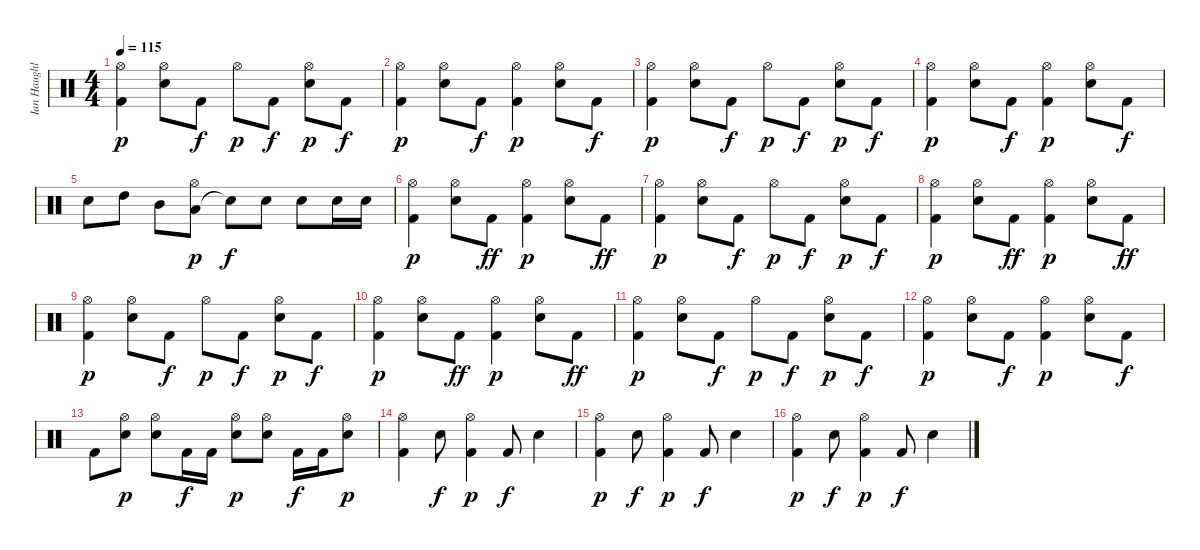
\track ("Ian Haughland" "Ian Haughl") {instrument percussion}
\staff {score}
\articulation defaults
\ts (4 4)
\tempo 115
\clef neutral
\ks c
("Kick (hit) 2" "Hi-Hat (open)").4{dy p} ("Snare (hit) 2" "Hi-Hat (open)").8 "Kick (hit) 2".8{dy f} "Hi-Hat (open)".8{dy p} "Kick (hit) 2".8{dy f} ("Snare (hit) 2" "Hi-Hat (open)").8{dy p} "Kick (hit) 2".8{dy f} |
("Kick (hit) 2" "Hi-Hat (open)").4{dy p} ("Snare (hit) 2" "Hi-Hat (open)").8 "Kick (hit) 2".8{dy f} ("Kick (hit) 2" "Hi-Hat (open)").4{dy p} ("Snare (hit) 2" "Hi-Hat (open)").8 "Kick (hit) 2".8{dy f} |
("Kick (hit) 2" "Hi-Hat (open)").4{dy p} ("Snare (hit) 2" "Hi-Hat (open)").8 "Kick (hit) 2".8{dy f} "Hi-Hat (open)".8{dy p} "Kick (hit) 2".8{dy f} ("Snare (hit) 2" "Hi-Hat (open)").8{dy p} "Kick (hit) 2".8{dy f} |
("Kick (hit) 2" "Hi-Hat (open)").4{dy p} ("Snare (hit) 2" "Hi-Hat (open)").8 "Kick (hit) 2".8{dy f} ("Kick (hit) 2" "Hi-Hat (open)").4{dy p} ("Snare (hit) 2" "Hi-Hat (open)").8 "Kick (hit) 2".8{dy f} |
"Snare (hit) 2".8 "High Tom (hit)".8 "Mid Tom (hit)".8 ("Low Floor Tom (hit)" "Hi-Hat (open)").8{dy p} "Snare (hit)"{t}.8{dy f} "Snare (hit) 2".8 "Snare (hit) 2".8 "Snare (hit) 2".16 "Snare (hit) 2".16 |
("Kick (hit) 2" "Hi-Hat (open)").4{dy p} ("Snare (hit) 2" "Hi-Hat (open)").8 "Kick (hit) 2".8{dy ff} ("Kick (hit) 2" "Hi-Hat (open)").4{dy p} ("Snare (hit) 2" "Hi-Hat (open)").8 "Kick (hit) 2".8{dy ff} |
("Kick (hit) 2" "Hi-Hat (open)").4{dy p} ("Snare (hit) 2" "Hi-Hat (open)").8 "Kick (hit) 2".8{dy f} "Hi-Hat (open)".8{dy p} "Kick (hit) 2".8{dy f} ("Snare (hit) 2" "Hi-Hat (open)").8{dy p} "Kick (hit) 2".8{dy f} |
("Kick (hit) 2" "Hi-Hat (open)").4{dy p} ("Snare (hit) 2" "Hi-Hat (open)").8 "Kick (hit) 2".8{dy ff} ("Kick (hit) 2" "Hi-Hat (open)").4{dy p} ("Snare (hit) 2" "Hi-Hat (open)").8 "Kick (hit) 2".8{dy ff} |
("Kick (hit) 2" "Hi-Hat (open)").4{dy p} ("Snare (hit) 2" "Hi-Hat (open)").8 "Kick (hit) 2".8{dy f} "Hi-Hat (open)".8{dy p} "Kick (hit) 2".8{dy f} ("Snare (hit) 2" "Hi-Hat (open)").8{dy p} "Kick (hit) 2".8{dy f} |
("Kick (hit) 2" "Hi-Hat (open)").4{dy p} ("Snare (hit) 2" "Hi-Hat (open)").8 "Kick (hit) 2".8{dy ff} ("Kick (hit) 2" "Hi-Hat (open)").4{dy p} ("Snare (hit) 2" "Hi-Hat (open)").8 "Kick (hit) 2".8{dy ff} |
("Kick (hit) 2" "Hi-Hat (open)").4{dy p} ("Snare (hit) 2" "Hi-Hat (open)").8 "Kick (hit) 2".8{dy f} "Hi-Hat (open)".8{dy p} "Kick (hit) 2".8{dy f} ("Snare (hit) 2" "Hi-Hat (open)").8{dy p} "Kick (hit) 2".8{dy f} |
("Kick (hit) 2" "Hi-Hat (open)").4{dy p} ("Snare (hit) 2" "Hi-Hat (open)").8 "Kick (hit) 2".8{dy f} ("Kick (hit) 2" "Hi-Hat (open)").4{dy p} ("Snare (hit) 2" "Hi-Hat (open)").8 "Kick (hit) 2".8{dy f} |
"Kick (hit) 2".8 ("Snare (hit) 2" "Hi-Hat (open)").8{dy p} ("Snare (hit) 2" "Hi-Hat (open)").8 "Kick (hit) 2".16{dy f} "Kick (hit) 2".16 ("Snare (hit) 2" "Hi-Hat (open)").8{dy p} ("Snare (hit) 2" "Hi-Hat (open)").8 "Kick (hit) 2".16{dy f} "Kick (hit) 2".16 ("Snare (hit) 2" "Hi-Hat (open)").8{dy p} |
("Kick (hit) 2" "Hi-Hat (open)").4 "Snare (hit) 2".8{dy f} ("Kick (hit) 2" "Hi-Hat (open)").4{dy p} "Kick (hit) 2".8{dy f} "Snare (hit) 2".4 |
("Kick (hit) 2" "Hi-Hat (open)").4{dy p} "Snare (hit) 2".8{dy f} ("Kick (hit) 2" "Hi-Hat (open)").4{dy p} "Kick (hit) 2".8{dy f} "Snare (hit) 2".4 |
("Kick (hit) 2" "Hi-Hat (open)").4{dy p} "Snare (hit) 2".8{dy f} ("Kick (hit) 2" "Hi-Hat (open)").4{dy p} "Kick (hit) 2".8{dy f} "Snare (hit) 2".4
